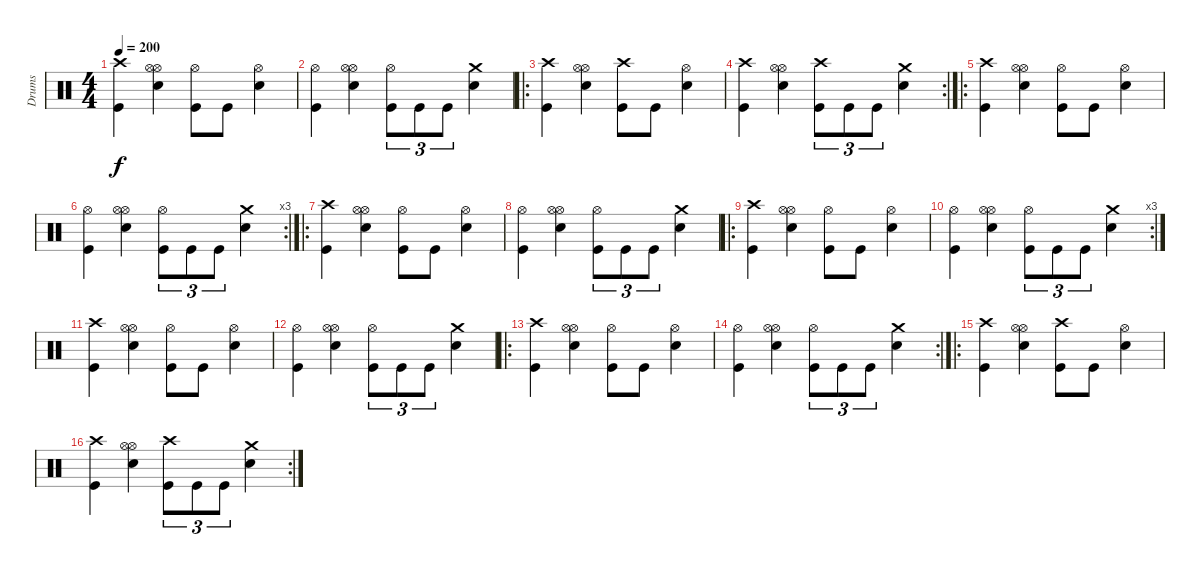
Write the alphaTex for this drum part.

\track ("Drums" "Drums") {instrument percussion}
\staff {score}
\articulation defaults
\ts (4 4)
\tempo 200
\clef neutral
\ks c
("Crash high (hit)" "Kick (hit)").4{dy f} ("Hi-Hat (open)" "Snare (hit) 2" "Hi-Hat (open)").4 ("Hi-Hat (open)" "Kick (hit)").8 "Kick (hit)".8 ("Hi-Hat (open)" "Snare (hit) 2").4 |
("Hi-Hat (open)" "Kick (hit)").4 ("Hi-Hat (open)" "Snare (hit) 2" "Hi-Hat (open)").4 ("Hi-Hat (open)" "Kick (hit)").8{tu (3 2)} "Kick (hit)".8{tu (3 2)} "Kick (hit)".8{tu (3 2)} ("Crash medium (hit)" "Snare (hit) 2").4 |
\ro
("Crash high (hit)" "Kick (hit)").4 ("Hi-Hat (open)" "Snare (hit) 2" "Hi-Hat (open)").4 ("Crash high (hit)" "Kick (hit)").8 "Kick (hit)".8 ("Hi-Hat (open)" "Snare (hit) 2").4 |
\rc 2
("Crash high (hit)" "Kick (hit)").4 ("Hi-Hat (open)" "Snare (hit) 2" "Hi-Hat (open)").4 ("Crash high (hit)" "Kick (hit)").8{tu (3 2)} "Kick (hit)".8{tu (3 2)} "Kick (hit)".8{tu (3 2)} ("Crash medium (hit)" "Snare (hit) 2").4 |
\ro
("Crash high (hit)" "Kick (hit)").4 ("Hi-Hat (open)" "Snare (hit) 2" "Hi-Hat (open)").4 ("Hi-Hat (open)" "Kick (hit)").8 "Kick (hit)".8 ("Hi-Hat (open)" "Snare (hit) 2").4 |
\rc 3
("Hi-Hat (open)" "Kick (hit)").4 ("Hi-Hat (open)" "Snare (hit) 2" "Hi-Hat (open)").4 ("Hi-Hat (open)" "Kick (hit)").8{tu (3 2)} "Kick (hit)".8{tu (3 2)} "Kick (hit)".8{tu (3 2)} ("Crash medium (hit)" "Snare (hit) 2").4 |
\ro
("Crash high (hit)" "Kick (hit)").4 ("Hi-Hat (open)" "Snare (hit) 2" "Hi-Hat (open)").4 ("Hi-Hat (open)" "Kick (hit)").8 "Kick (hit)".8 ("Hi-Hat (open)" "Snare (hit) 2").4 |
("Hi-Hat (open)" "Kick (hit)").4 ("Hi-Hat (open)" "Snare (hit) 2" "Hi-Hat (open)").4 ("Hi-Hat (open)" "Kick (hit)").8{tu (3 2)} "Kick (hit)".8{tu (3 2)} "Kick (hit)".8{tu (3 2)} ("Crash medium (hit)" "Snare (hit) 2").4 |
\ro
("Crash high (hit)" "Kick (hit)").4 ("Hi-Hat (open)" "Snare (hit) 2" "Hi-Hat (open)").4 ("Hi-Hat (open)" "Kick (hit)").8 "Kick (hit)".8 ("Hi-Hat (open)" "Snare (hit) 2").4 |
\rc 3
("Hi-Hat (open)" "Kick (hit)").4 ("Hi-Hat (open)" "Snare (hit) 2" "Hi-Hat (open)").4 ("Hi-Hat (open)" "Kick (hit)").8{tu (3 2)} "Kick (hit)".8{tu (3 2)} "Kick (hit)".8{tu (3 2)} ("Crash medium (hit)" "Snare (hit) 2").4 |
("Crash high (hit)" "Kick (hit)").4 ("Hi-Hat (open)" "Snare (hit) 2" "Hi-Hat (open)").4 ("Hi-Hat (open)" "Kick (hit)").8 "Kick (hit)".8 ("Hi-Hat (open)" "Snare (hit) 2").4 |
("Hi-Hat (open)" "Kick (hit)").4 ("Hi-Hat (open)" "Snare (hit) 2" "Hi-Hat (open)").4 ("Hi-Hat (open)" "Kick (hit)").8{tu (3 2)} "Kick (hit)".8{tu (3 2)} "Kick (hit)".8{tu (3 2)} ("Crash medium (hit)" "Snare (hit) 2").4 |
\ro
("Crash high (hit)" "Kick (hit)").4 ("Hi-Hat (open)" "Snare (hit) 2" "Hi-Hat (open)").4 ("Hi-Hat (open)" "Kick (hit)").8 "Kick (hit)".8 ("Hi-Hat (open)" "Snare (hit) 2").4 |
\rc 2
("Hi-Hat (open)" "Kick (hit)").4 ("Hi-Hat (open)" "Snare (hit) 2" "Hi-Hat (open)").4 ("Hi-Hat (open)" "Kick (hit)").8{tu (3 2)} "Kick (hit)".8{tu (3 2)} "Kick (hit)".8{tu (3 2)} ("Crash medium (hit)" "Snare (hit) 2").4 |
\ro
("Crash high (hit)" "Kick (hit)").4 ("Hi-Hat (open)" "Snare (hit) 2" "Hi-Hat (open)").4 ("Crash high (hit)" "Kick (hit)").8 "Kick (hit)".8 ("Hi-Hat (open)" "Snare (hit) 2").4 |
\rc 2
("Crash high (hit)" "Kick (hit)").4 ("Hi-Hat (open)" "Snare (hit) 2" "Hi-Hat (open)").4 ("Crash high (hit)" "Kick (hit)").8{tu (3 2)} "Kick (hit)".8{tu (3 2)} "Kick (hit)".8{tu (3 2)} ("Crash medium (hit)" "Snare (hit) 2").4
